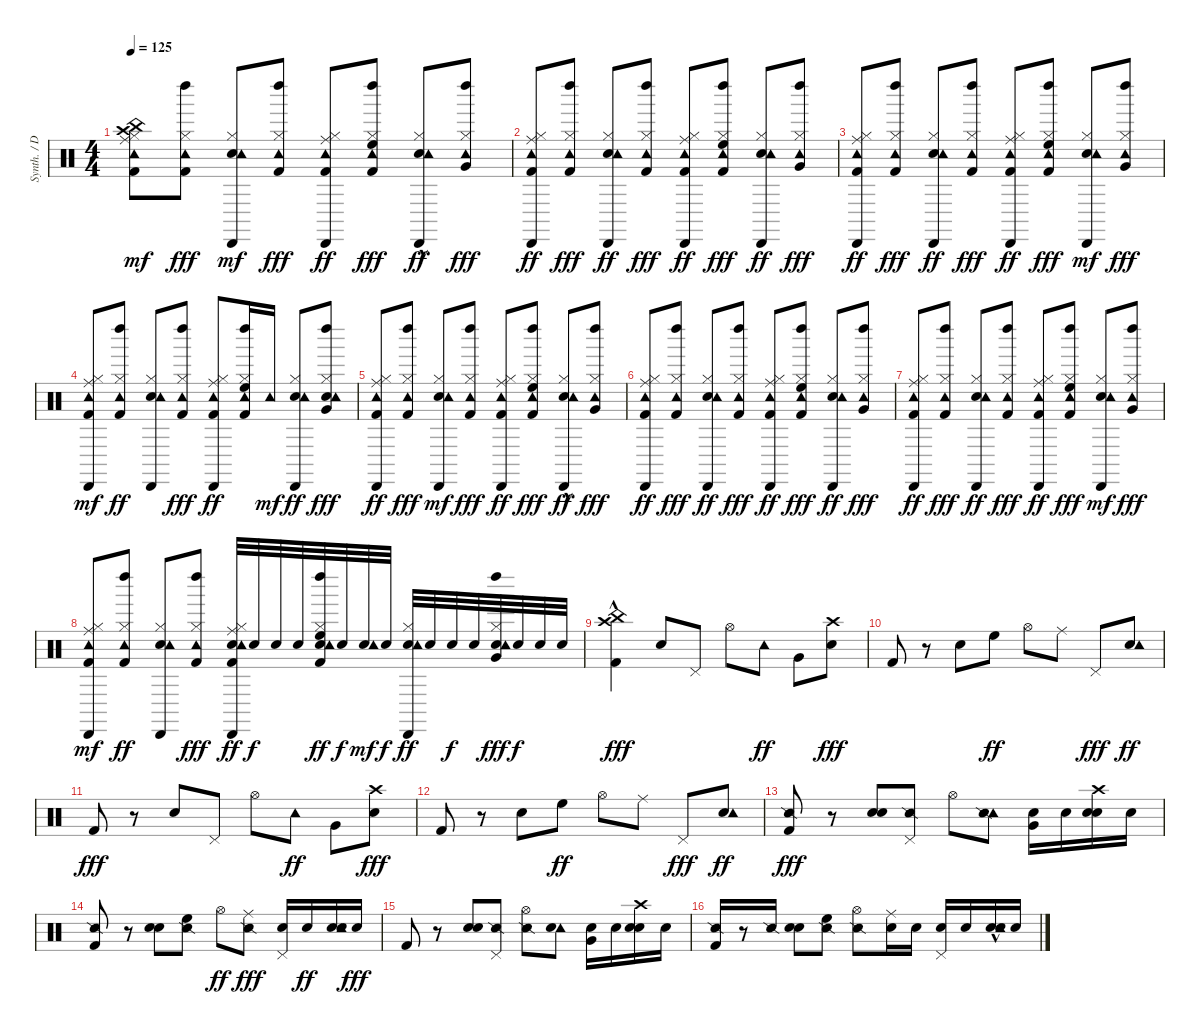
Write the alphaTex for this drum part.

\track ("Synth. / Drums" "Synth. / D") {instrument percussion}
\staff {score}
\articulation defaults
\ts (4 4)
\tempo 125
\clef neutral
\ks c
("Kick (hit) 2" "Hi-Hat (closed)" "Crash high (hit)" "Ride (middle)" "China (hit)" "Tambourine (hit)").8{dy mf} ("Kick (hit) 2" "Hi-Hat (closed)" "Tambourine (hit)" "Left Maraca (hit)").8{dy fff} ("Electric Snare (hit)" "Hi-Hat (closed)" "Tambourine (hit)" "Cabasa (hit)").8{dy mf} ("Kick (hit) 2" "Hi-Hat (closed)" "Tambourine (hit)" "Left Maraca (hit)").8{dy fff} ("Kick (hit) 2" "Hi-Hat (closed)" "Ride (middle)" "Tambourine (hit)" "Cabasa (hit)").8{dy ff} ("Kick (hit) 2" "Hi-Hat (closed)" "High Floor Tom (hit)" "Tambourine (hit)" "Left Maraca (hit)").8{dy fff} ("Electric Snare (hit)"{hac} "Hi-Hat (closed)" "Tambourine (hit)" "Cabasa (hit)").8{dy ff} ("Hi-Hat (closed)" "Very Low Tom (hit)" "Tambourine (hit)" "Left Maraca (hit)").8{dy fff} |
("Kick (hit) 2" "Hi-Hat (closed)" "Ride (middle)" "Tambourine (hit)" "Cabasa (hit)").8{dy ff} ("Kick (hit) 2" "Hi-Hat (closed)" "Tambourine (hit)" "Left Maraca (hit)").8{dy fff} ("Electric Snare (hit)" "Hi-Hat (closed)" "Tambourine (hit)" "Cabasa (hit)").8{dy ff} ("Kick (hit) 2" "Hi-Hat (closed)" "Tambourine (hit)" "Left Maraca (hit)").8{dy fff} ("Kick (hit) 2" "Hi-Hat (closed)" "Ride (middle)" "Tambourine (hit)" "Cabasa (hit)").8{dy ff} ("Kick (hit) 2" "Hi-Hat (closed)" "High Floor Tom (hit)" "Tambourine (hit)" "Left Maraca (hit)").8{dy fff} ("Electric Snare (hit)" "Hi-Hat (closed)" "Tambourine (hit)" "Cabasa (hit)").8{dy ff} ("Hi-Hat (closed)" "Very Low Tom (hit)" "Tambourine (hit)" "Left Maraca (hit)").8{dy fff} |
("Kick (hit) 2" "Hi-Hat (closed)" "Ride (middle)" "Tambourine (hit)" "Cabasa (hit)").8{dy ff} ("Kick (hit) 2" "Hi-Hat (closed)" "Tambourine (hit)" "Left Maraca (hit)").8{dy fff} ("Electric Snare (hit)" "Hi-Hat (closed)" "Tambourine (hit)" "Cabasa (hit)").8{dy ff} ("Kick (hit) 2" "Hi-Hat (closed)" "Tambourine (hit)" "Left Maraca (hit)").8{dy fff} ("Kick (hit) 2" "Hi-Hat (closed)" "Ride (middle)" "Tambourine (hit)" "Cabasa (hit)").8{dy ff} ("Kick (hit) 2" "Hi-Hat (closed)" "High Floor Tom (hit)" "Tambourine (hit)" "Left Maraca (hit)").8{dy fff} ("Electric Snare (hit)" "Hi-Hat (closed)" "Tambourine (hit)" "Cabasa (hit)").8{dy mf} ("Hi-Hat (closed)" "Very Low Tom (hit)" "Tambourine (hit)" "Left Maraca (hit)").8{dy fff} |
("Kick (hit) 2" "Hi-Hat (closed)" "Ride (middle)" "Tambourine (hit)" "Cabasa (hit)").8{dy mf} ("Kick (hit) 2" "Hi-Hat (closed)" "Tambourine (hit)" "Left Maraca (hit)").8{dy ff} ("Electric Snare (hit)" "Hi-Hat (closed)" "Tambourine (hit)" "Cabasa (hit)").8 ("Kick (hit) 2" "Hi-Hat (closed)" "Tambourine (hit)" "Left Maraca (hit)").8{dy fff} ("Kick (hit) 2" "Hi-Hat (closed)" "Ride (middle)" "Tambourine (hit)" "Cabasa (hit)").8{dy ff} ("Kick (hit) 2" "Hi-Hat (closed)" "High Floor Tom (hit)" "Tambourine (hit)" "Left Maraca (hit)").16 "Tambourine (hit)".16{dy mf} ("Electric Snare (hit)" "Hi-Hat (closed)" "Tambourine (hit)" "Cabasa (hit)").8{dy ff} ("Electric Snare (hit)" "Hi-Hat (closed)" "Very Low Tom (hit)" "Tambourine (hit)" "Left Maraca (hit)").8{dy fff} |
("Kick (hit) 2" "Hi-Hat (closed)" "Ride (middle)" "Tambourine (hit)" "Cabasa (hit)").8{dy ff} ("Kick (hit) 2" "Hi-Hat (closed)" "Tambourine (hit)" "Left Maraca (hit)").8{dy fff} ("Electric Snare (hit)" "Hi-Hat (closed)" "Tambourine (hit)" "Cabasa (hit)").8{dy mf} ("Kick (hit) 2" "Hi-Hat (closed)" "Tambourine (hit)" "Left Maraca (hit)").8{dy fff} ("Kick (hit) 2" "Hi-Hat (closed)" "Ride (middle)" "Tambourine (hit)" "Cabasa (hit)").8{dy ff} ("Kick (hit) 2" "Hi-Hat (closed)" "High Floor Tom (hit)" "Tambourine (hit)" "Left Maraca (hit)").8{dy fff} ("Electric Snare (hit)"{hac} "Hi-Hat (closed)" "Tambourine (hit)" "Cabasa (hit)").8{dy ff} ("Hi-Hat (closed)" "Very Low Tom (hit)" "Tambourine (hit)" "Left Maraca (hit)").8{dy fff} |
("Kick (hit) 2" "Hi-Hat (closed)" "Ride (middle)" "Tambourine (hit)" "Cabasa (hit)").8{dy ff} ("Kick (hit) 2" "Hi-Hat (closed)" "Tambourine (hit)" "Left Maraca (hit)").8{dy fff} ("Electric Snare (hit)" "Hi-Hat (closed)" "Tambourine (hit)" "Cabasa (hit)").8{dy ff} ("Kick (hit) 2" "Hi-Hat (closed)" "Tambourine (hit)" "Left Maraca (hit)").8{dy fff} ("Kick (hit) 2" "Hi-Hat (closed)" "Ride (middle)" "Tambourine (hit)" "Cabasa (hit)").8{dy ff} ("Kick (hit) 2" "Hi-Hat (closed)" "High Floor Tom (hit)" "Tambourine (hit)" "Left Maraca (hit)").8{dy fff} ("Electric Snare (hit)" "Hi-Hat (closed)" "Tambourine (hit)" "Cabasa (hit)").8{dy ff} ("Hi-Hat (closed)" "Very Low Tom (hit)" "Tambourine (hit)" "Left Maraca (hit)").8{dy fff} |
("Kick (hit) 2" "Hi-Hat (closed)" "Ride (middle)" "Tambourine (hit)" "Cabasa (hit)").8{dy ff} ("Kick (hit) 2" "Hi-Hat (closed)" "Tambourine (hit)" "Left Maraca (hit)").8{dy fff} ("Electric Snare (hit)" "Hi-Hat (closed)" "Tambourine (hit)" "Cabasa (hit)").8{dy ff} ("Kick (hit) 2" "Hi-Hat (closed)" "Tambourine (hit)" "Left Maraca (hit)").8{dy fff} ("Kick (hit) 2" "Hi-Hat (closed)" "Ride (middle)" "Tambourine (hit)" "Cabasa (hit)").8{dy ff} ("Kick (hit) 2" "Hi-Hat (closed)" "High Floor Tom (hit)" "Tambourine (hit)" "Left Maraca (hit)").8{dy fff} ("Electric Snare (hit)" "Hi-Hat (closed)" "Tambourine (hit)" "Cabasa (hit)").8{dy mf} ("Hi-Hat (closed)" "Very Low Tom (hit)" "Tambourine (hit)" "Left Maraca (hit)").8{dy fff} |
("Kick (hit) 2" "Hi-Hat (closed)" "Ride (middle)" "Tambourine (hit)" "Cabasa (hit)").8{dy mf} ("Kick (hit) 2" "Hi-Hat (closed)" "Tambourine (hit)" "Left Maraca (hit)").8{dy ff} ("Electric Snare (hit)" "Hi-Hat (closed)" "Tambourine (hit)" "Cabasa (hit)").8 ("Kick (hit) 2" "Hi-Hat (closed)" "Tambourine (hit)" "Left Maraca (hit)").8{dy fff} ("Kick (hit) 2" "Electric Snare (hit)" "Hi-Hat (closed)" "Ride (middle)" "Tambourine (hit)" "Cabasa (hit)").32{dy ff} "Electric Snare (hit)".32{dy f} "Electric Snare (hit)".32 "Electric Snare (hit)".32 ("Kick (hit) 2" "Electric Snare (hit)" "Hi-Hat (closed)" "High Floor Tom (hit)" "Tambourine (hit)" "Left Maraca (hit)").32{dy ff} "Electric Snare (hit)".32{dy f} ("Electric Snare (hit)" "Tambourine (hit)").32{dy mf} "Electric Snare (hit)".32{dy f} ("Electric Snare (hit)" "Hi-Hat (closed)" "Tambourine (hit)" "Cabasa (hit)").32{dy ff} "Electric Snare (hit)".32 "Electric Snare (hit)".32{dy f} "Electric Snare (hit)".32 ("Electric Snare (hit)" "Hi-Hat (closed)" "Very Low Tom (hit)" "Tambourine (hit)" "Left Maraca (hit)").32{dy fff} "Electric Snare (hit)".32{dy f} "Electric Snare (hit)".32 "Electric Snare (hit)".32 |
("Kick (hit) 2"{hac} "Crash high (hit)" "China (hit)").4{dy fff} "Snare (hit) 2".8 "Pedal Hi-Hat (hit)".8 "Hi-Hat (open)".8 "Tambourine (hit)".8{dy ff} "Very Low Tom (hit)".8 ("Electric Snare (hit)" "Crash high (hit)").8{dy fff} |
"Kick (hit) 2".8 r.8 "Snare (hit) 2".8 "High Floor Tom (hit)".8{dy ff} "Hi-Hat (open)".8 "Ride (middle)".8 "Pedal Hi-Hat (hit)".8{dy fff} ("Electric Snare (hit)" "Tambourine (hit)").8{dy ff} |
"Kick (hit) 2".8{dy fff} r.8 "Snare (hit) 2".8 "Pedal Hi-Hat (hit)".8 "Hi-Hat (open)".8 "Tambourine (hit)".8{dy ff} "Very Low Tom (hit)".8 ("Electric Snare (hit)" "Crash high (hit)").8{dy fff} |
"Kick (hit) 2".8 r.8 "Snare (hit) 2".8 "High Floor Tom (hit)".8{dy ff} "Hi-Hat (open)".8 "Ride (middle)".8 "Pedal Hi-Hat (hit)".8{dy fff} ("Electric Snare (hit)" "Tambourine (hit)").8{dy ff} |
("Kick (hit) 2" "Snare (side stick) 2").8{dy fff} r.8 ("Snare (hit) 2" "Metronome (bell)").8 ("Pedal Hi-Hat (hit)" "Snare (side stick) 2").8 "Hi-Hat (open)".8 ("Tambourine (hit)" "Snare (side stick) 2").8 ("Very Low Tom (hit)" "Metronome (bell)").16 "Metronome (bell)".16 ("Electric Snare (hit)" "Crash high (hit)" "Metronome (bell)").16 "Metronome (bell)".16 |
("Kick (hit) 2" "Snare (side stick) 2").8 r.8 ("Snare (hit) 2" "Metronome (bell)").8 ("High Floor Tom (hit)" "Snare (side stick) 2").8 "Hi-Hat (open)".8{dy ff} ("Ride (middle)" "Snare (side stick) 2").8{dy fff} ("Pedal Hi-Hat (hit)" "Metronome (bell)").16 "Metronome (bell)".16{dy ff} ("Electric Snare (hit)" "Tambourine (hit)" "Metronome (bell)").16 "Metronome (bell)".16{dy fff} |
"Kick (hit) 2".8 r.8 ("Snare (hit) 2" "Metronome (bell)").8 ("Pedal Hi-Hat (hit)" "Snare (side stick) 2").8 ("Hi-Hat (open)" "Snare (side stick) 2").8 ("Tambourine (hit)" "Metronome (bell)").8 ("Very Low Tom (hit)" "Metronome (bell)").16 "Metronome (bell)".16 ("Electric Snare (hit)" "Crash high (hit)" "Metronome (bell)").16 "Metronome (bell)".16 |
("Kick (hit) 2" "Snare (side stick) 2").16 r.8 "Snare (side stick) 2".16 ("Snare (hit) 2" "Metronome (bell)").8 ("High Floor Tom (hit)" "Snare (side stick) 2").8 ("Hi-Hat (open)" "Snare (side stick) 2").8 ("Ride (middle)" "Metronome (bell)").16 "Metronome (bell)".16 ("Pedal Hi-Hat (hit)" "Metronome (bell)").16 "Metronome (bell)".16 ("Electric Snare (hit)" "Tambourine (hit)"{hac} "Metronome (bell)").16 "Metronome (bell)".16
